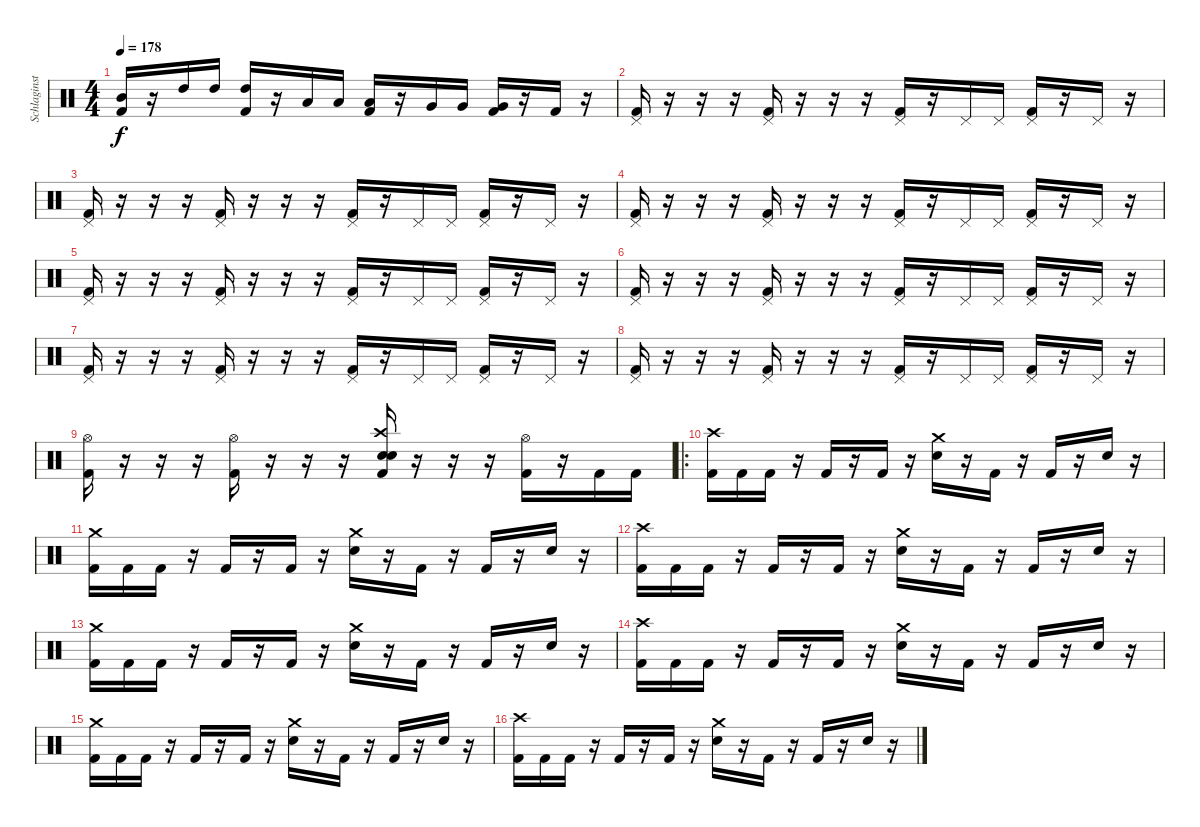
\track ("Schlaginstrumente - Auswahl" "Schlaginst") {instrument percussion}
\staff {score}
\articulation defaults
\ts (4 4)
\tempo 178
\clef neutral
\ks c
("Mid Tom (hit)" "Kick (hit) 2").16{dy f} r.16 "High Tom (hit)".16 "High Tom (hit)".16 ("High Tom (hit)" "Kick (hit) 2").16 r.16 "Low Tom (hit)".16 "Low Tom (hit)".16 ("Low Tom (hit)" "Kick (hit) 2").16 r.16 "Very Low Tom (hit)".16 "Very Low Tom (hit)".16 ("Very Low Tom (hit)" "Kick (hit) 2").16 r.16 "Kick (hit) 2".16 r.16 |
("Pedal Hi-Hat (hit)" "Kick (hit) 2").16 r.16 r.16 r.16 ("Pedal Hi-Hat (hit)" "Kick (hit) 2").16 r.16 r.16 r.16 ("Pedal Hi-Hat (hit)" "Kick (hit) 2").16 r.16 "Pedal Hi-Hat (hit)".16 "Pedal Hi-Hat (hit)".16 ("Pedal Hi-Hat (hit)" "Kick (hit) 2").16 r.16 "Pedal Hi-Hat (hit)".16 r.16 |
("Pedal Hi-Hat (hit)" "Kick (hit) 2").16 r.16 r.16 r.16 ("Pedal Hi-Hat (hit)" "Kick (hit) 2").16 r.16 r.16 r.16 ("Pedal Hi-Hat (hit)" "Kick (hit) 2").16 r.16 "Pedal Hi-Hat (hit)".16 "Pedal Hi-Hat (hit)".16 ("Pedal Hi-Hat (hit)" "Kick (hit) 2").16 r.16 "Pedal Hi-Hat (hit)".16 r.16 |
("Pedal Hi-Hat (hit)" "Kick (hit) 2").16 r.16 r.16 r.16 ("Pedal Hi-Hat (hit)" "Kick (hit) 2").16 r.16 r.16 r.16 ("Pedal Hi-Hat (hit)" "Kick (hit) 2").16 r.16 "Pedal Hi-Hat (hit)".16 "Pedal Hi-Hat (hit)".16 ("Pedal Hi-Hat (hit)" "Kick (hit) 2").16 r.16 "Pedal Hi-Hat (hit)".16 r.16 |
("Pedal Hi-Hat (hit)" "Kick (hit) 2").16 r.16 r.16 r.16 ("Pedal Hi-Hat (hit)" "Kick (hit) 2").16 r.16 r.16 r.16 ("Pedal Hi-Hat (hit)" "Kick (hit) 2").16 r.16 "Pedal Hi-Hat (hit)".16 "Pedal Hi-Hat (hit)".16 ("Pedal Hi-Hat (hit)" "Kick (hit) 2").16 r.16 "Pedal Hi-Hat (hit)".16 r.16 |
("Pedal Hi-Hat (hit)" "Kick (hit) 2").16 r.16 r.16 r.16 ("Pedal Hi-Hat (hit)" "Kick (hit) 2").16 r.16 r.16 r.16 ("Pedal Hi-Hat (hit)" "Kick (hit) 2").16 r.16 "Pedal Hi-Hat (hit)".16 "Pedal Hi-Hat (hit)".16 ("Pedal Hi-Hat (hit)" "Kick (hit) 2").16 r.16 "Pedal Hi-Hat (hit)".16 r.16 |
("Pedal Hi-Hat (hit)" "Kick (hit) 2").16 r.16 r.16 r.16 ("Pedal Hi-Hat (hit)" "Kick (hit) 2").16 r.16 r.16 r.16 ("Pedal Hi-Hat (hit)" "Kick (hit) 2").16 r.16 "Pedal Hi-Hat (hit)".16 "Pedal Hi-Hat (hit)".16 ("Pedal Hi-Hat (hit)" "Kick (hit) 2").16 r.16 "Pedal Hi-Hat (hit)".16 r.16 |
("Pedal Hi-Hat (hit)" "Kick (hit) 2").16 r.16 r.16 r.16 ("Pedal Hi-Hat (hit)" "Kick (hit) 2").16 r.16 r.16 r.16 ("Pedal Hi-Hat (hit)" "Kick (hit) 2").16 r.16 "Pedal Hi-Hat (hit)".16 "Pedal Hi-Hat (hit)".16 ("Pedal Hi-Hat (hit)" "Kick (hit) 2").16 r.16 "Pedal Hi-Hat (hit)".16 r.16 |
("Hi-Hat (open)" "Kick (hit) 2").16 r.16 r.16 r.16 ("Hi-Hat (open)" "Kick (hit) 2").16 r.16 r.16 r.16 ("Crash high (hit)" "Snare (hit) 2" "Snare (hit) 2" "Kick (hit) 2").16 r.16 r.16 r.16 ("Hi-Hat (open)" "Kick (hit) 2").16 r.16 "Kick (hit) 2".16 "Kick (hit) 2".16 |
\ro
("Crash high (hit)" "Kick (hit) 2").16 "Kick (hit) 2".16 "Kick (hit) 2".16 r.16 "Kick (hit) 2".16 r.16 "Kick (hit) 2".16 r.16 ("Crash medium (hit)" "Snare (hit) 2").16 r.16 "Kick (hit) 2".16 r.16 "Kick (hit) 2".16 r.16 "Snare (hit) 2".16 r.16 |
("Crash medium (hit)" "Kick (hit) 2").16 "Kick (hit) 2".16 "Kick (hit) 2".16 r.16 "Kick (hit) 2".16 r.16 "Kick (hit) 2".16 r.16 ("Crash medium (hit)" "Snare (hit) 2").16 r.16 "Kick (hit) 2".16 r.16 "Kick (hit) 2".16 r.16 "Snare (hit) 2".16 r.16 |
("Crash high (hit)" "Kick (hit) 2").16 "Kick (hit) 2".16 "Kick (hit) 2".16 r.16 "Kick (hit) 2".16 r.16 "Kick (hit) 2".16 r.16 ("Crash medium (hit)" "Snare (hit) 2").16 r.16 "Kick (hit) 2".16 r.16 "Kick (hit) 2".16 r.16 "Snare (hit) 2".16 r.16 |
("Crash medium (hit)" "Kick (hit) 2").16 "Kick (hit) 2".16 "Kick (hit) 2".16 r.16 "Kick (hit) 2".16 r.16 "Kick (hit) 2".16 r.16 ("Crash medium (hit)" "Snare (hit) 2").16 r.16 "Kick (hit) 2".16 r.16 "Kick (hit) 2".16 r.16 "Snare (hit) 2".16 r.16 |
("Crash high (hit)" "Kick (hit) 2").16 "Kick (hit) 2".16 "Kick (hit) 2".16 r.16 "Kick (hit) 2".16 r.16 "Kick (hit) 2".16 r.16 ("Crash medium (hit)" "Snare (hit) 2").16 r.16 "Kick (hit) 2".16 r.16 "Kick (hit) 2".16 r.16 "Snare (hit) 2".16 r.16 |
("Crash medium (hit)" "Kick (hit) 2").16 "Kick (hit) 2".16 "Kick (hit) 2".16 r.16 "Kick (hit) 2".16 r.16 "Kick (hit) 2".16 r.16 ("Crash medium (hit)" "Snare (hit) 2").16 r.16 "Kick (hit) 2".16 r.16 "Kick (hit) 2".16 r.16 "Snare (hit) 2".16 r.16 |
("Crash high (hit)" "Kick (hit) 2").16 "Kick (hit) 2".16 "Kick (hit) 2".16 r.16 "Kick (hit) 2".16 r.16 "Kick (hit) 2".16 r.16 ("Crash medium (hit)" "Snare (hit) 2").16 r.16 "Kick (hit) 2".16 r.16 "Kick (hit) 2".16 r.16 "Snare (hit) 2".16 r.16
